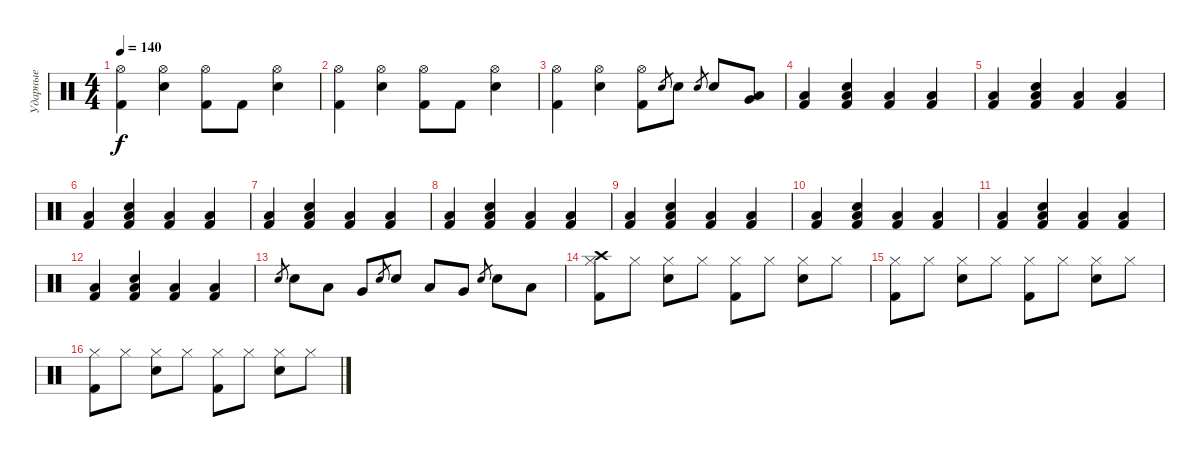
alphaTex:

\track ("Ударные" "Ударные") {instrument percussion}
\staff {score}
\articulation defaults
\ts (4 4)
\tempo 140
\clef neutral
\ks c
("Kick (hit) 2" "Hi-Hat (open)").4{dy f} ("Snare (hit) 2" "Hi-Hat (open)").4 ("Kick (hit) 2" "Hi-Hat (open)").8 "Kick (hit) 2".8 ("Snare (hit) 2" "Hi-Hat (open)").4 |
("Kick (hit) 2" "Hi-Hat (open)").4 ("Snare (hit) 2" "Hi-Hat (open)").4 ("Kick (hit) 2" "Hi-Hat (open)").8 "Kick (hit) 2".8 ("Snare (hit) 2" "Hi-Hat (open)").4 |
("Kick (hit) 2" "Hi-Hat (open)").4 ("Snare (hit) 2" "Hi-Hat (open)").4 ("Kick (hit) 2" "Hi-Hat (open)").8 "Snare (hit) 2".8{gr} "Snare (hit) 2".8 "Snare (hit) 2".8{gr} "Snare (hit) 2".8 ("Low Tom (hit)" "Very Low Tom (hit)").8 |
("Kick (hit) 2" "Low Floor Tom (hit)").4 ("Kick (hit) 2" "Snare (hit) 2" "Low Floor Tom (hit)").4 ("Kick (hit) 2" "Low Floor Tom (hit)").4 ("Kick (hit) 2" "Low Floor Tom (hit)").4 |
("Kick (hit) 2" "Low Floor Tom (hit)").4 ("Kick (hit) 2" "Snare (hit) 2" "Low Floor Tom (hit)").4 ("Kick (hit) 2" "Low Floor Tom (hit)").4 ("Kick (hit) 2" "Low Floor Tom (hit)").4 |
("Kick (hit) 2" "Low Floor Tom (hit)").4 ("Kick (hit) 2" "Snare (hit) 2" "Low Floor Tom (hit)").4 ("Kick (hit) 2" "Low Floor Tom (hit)").4 ("Kick (hit) 2" "Low Floor Tom (hit)").4 |
("Kick (hit) 2" "Low Floor Tom (hit)").4 ("Kick (hit) 2" "Snare (hit) 2" "Low Floor Tom (hit)").4 ("Kick (hit) 2" "Low Floor Tom (hit)").4 ("Kick (hit) 2" "Low Floor Tom (hit)").4 |
("Kick (hit) 2" "Low Floor Tom (hit)").4 ("Kick (hit) 2" "Snare (hit) 2" "Low Floor Tom (hit)").4 ("Kick (hit) 2" "Low Floor Tom (hit)").4 ("Kick (hit) 2" "Low Floor Tom (hit)").4 |
("Kick (hit) 2" "Low Floor Tom (hit)").4 ("Kick (hit) 2" "Snare (hit) 2" "Low Floor Tom (hit)").4 ("Kick (hit) 2" "Low Floor Tom (hit)").4 ("Kick (hit) 2" "Low Floor Tom (hit)").4 |
("Kick (hit) 2" "Low Floor Tom (hit)").4 ("Kick (hit) 2" "Snare (hit) 2" "Low Floor Tom (hit)").4 ("Kick (hit) 2" "Low Floor Tom (hit)").4 ("Kick (hit) 2" "Low Floor Tom (hit)").4 |
("Kick (hit) 2" "Low Floor Tom (hit)").4 ("Kick (hit) 2" "Snare (hit) 2" "Low Floor Tom (hit)").4 ("Kick (hit) 2" "Low Floor Tom (hit)").4 ("Kick (hit) 2" "Low Floor Tom (hit)").4 |
("Kick (hit) 2" "Low Floor Tom (hit)").4 ("Kick (hit) 2" "Snare (hit) 2" "Low Floor Tom (hit)").4 ("Kick (hit) 2" "Low Floor Tom (hit)").4 ("Kick (hit) 2" "Low Floor Tom (hit)").4 |
"Snare (hit) 2".8{gr} "Snare (hit) 2".8 "Low Tom (hit)".8 "Very Low Tom (hit)".8 "Snare (hit) 2".8{gr} "Snare (hit) 2".8 "Low Tom (hit)".8 "Very Low Tom (hit)".8 "Snare (hit) 2".8{gr} "Snare (hit) 2".8 "Low Floor Tom (hit)".8 |
("Kick (hit) 2" "Hi-Hat (closed)" "Crash high (hit)").8 "Hi-Hat (closed)".8 ("Snare (hit) 2" "Hi-Hat (closed)").8 "Hi-Hat (closed)".8 ("Kick (hit) 2" "Hi-Hat (closed)").8 "Hi-Hat (closed)".8 ("Snare (hit) 2" "Hi-Hat (closed)").8 "Hi-Hat (closed)".8 |
("Kick (hit) 2" "Hi-Hat (closed)").8 "Hi-Hat (closed)".8 ("Snare (hit) 2" "Hi-Hat (closed)").8 "Hi-Hat (closed)".8 ("Kick (hit) 2" "Hi-Hat (closed)").8 "Hi-Hat (closed)".8 ("Snare (hit) 2" "Hi-Hat (closed)").8 "Hi-Hat (closed)".8 |
("Kick (hit) 2" "Hi-Hat (closed)").8 "Hi-Hat (closed)".8 ("Snare (hit) 2" "Hi-Hat (closed)").8 "Hi-Hat (closed)".8 ("Kick (hit) 2" "Hi-Hat (closed)").8 "Hi-Hat (closed)".8 ("Snare (hit) 2" "Hi-Hat (closed)").8 "Hi-Hat (closed)".8
